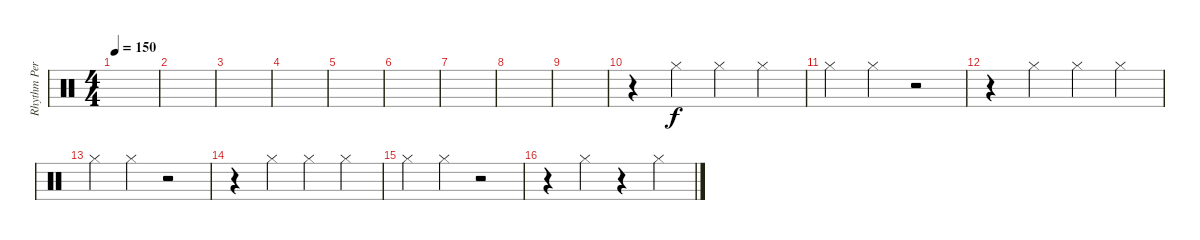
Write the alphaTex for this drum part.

\track ("Rhythm Percussion" "Rhythm Per") {instrument percussion}
\staff {score}
\articulation defaults
\ts (4 4)
\tempo 150
\clef neutral
\ks c
|
|
|
|
|
|
|
|
|
r.4 "Hi-Hat (closed)".4 "Hi-Hat (closed)".4 "Hi-Hat (closed)".4 |
"Hi-Hat (closed)".4 "Hi-Hat (closed)".4 r.2 |
r.4 "Hi-Hat (closed)".4 "Hi-Hat (closed)".4 "Hi-Hat (closed)".4 |
"Hi-Hat (closed)".4 "Hi-Hat (closed)".4 r.2 |
r.4 "Hi-Hat (closed)".4 "Hi-Hat (closed)".4 "Hi-Hat (closed)".4 |
"Hi-Hat (closed)".4 "Hi-Hat (closed)".4 r.2 |
r.4 "Hi-Hat (closed)".4 r.4 "Hi-Hat (closed)".4
